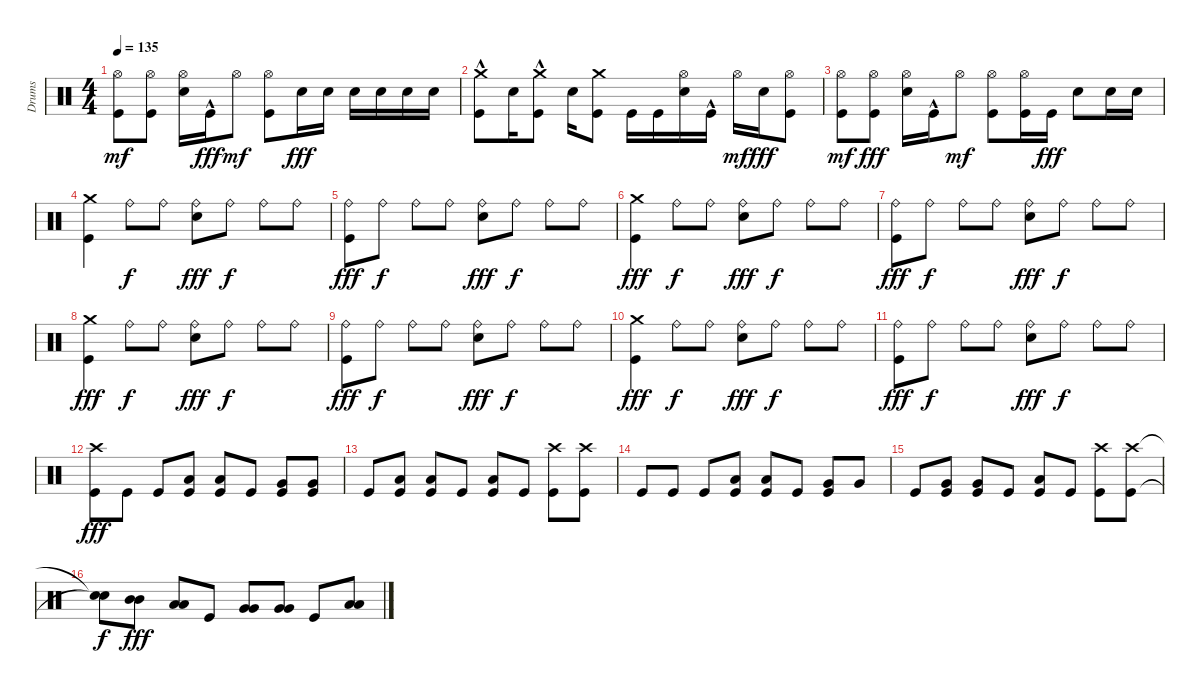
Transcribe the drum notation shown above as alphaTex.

\track ("Drums" "Drums") {instrument percussion}
\staff {score}
\articulation defaults
\ts (4 4)
\tempo 135
\clef neutral
\ks c
("Kick (hit)" "Hi-Hat (open)").8{dy mf} ("Kick (hit)" "Hi-Hat (open)").8 ("Electric Snare (hit)" "Hi-Hat (open)").16 "Kick (hit)"{hac}.16{dy fff} "Hi-Hat (open)".8{dy mf} ("Kick (hit)" "Hi-Hat (open)").8 "Electric Snare (hit)".16{dy fff} "Electric Snare (hit)".16 "Electric Snare (hit)".16 "Electric Snare (hit)".16 "Electric Snare (hit)".16 "Electric Snare (hit)".16 |
("Crash medium (hit)" "Kick (hit)"{hac}).8 "Electric Snare (hit)".16 ("Crash medium (hit)"{hac} "Kick (hit)"{hac}).8 "Electric Snare (hit)".16 ("Crash medium (hit)" "Kick (hit)").8 "Kick (hit)".16 "Kick (hit)".16 ("Hi-Hat (open)" "Electric Snare (hit)").16 "Kick (hit)"{hac}.16 "Hi-Hat (open)".16{dy mf} "Electric Snare (hit)".16{dy fff} ("Hi-Hat (open)" "Kick (hit)").8 |
("Kick (hit)" "Hi-Hat (open)").8{dy mf} ("Hi-Hat (open)" "Kick (hit)").8{dy fff} ("Hi-Hat (open)" "Electric Snare (hit)").16 "Kick (hit)"{hac}.16 "Hi-Hat (open)".8{dy mf} ("Kick (hit)" "Hi-Hat (open)").8 ("Kick (hit)" "Hi-Hat (open)").16 "Kick (hit)".16{dy fff} "Electric Snare (hit)".8 "Electric Snare (hit)".16 "Electric Snare (hit)".16 |
("Kick (hit)" "Crash medium (hit)").4 "Ride (bell)".8{dy f} "Ride (bell)".8 ("Electric Snare (hit)" "Ride (bell)").8{dy fff} "Ride (bell)".8{dy f} "Ride (bell)".8 "Ride (bell)".8 |
("Kick (hit)" "Ride (bell)").8{dy fff} "Ride (bell)".8{dy f} "Ride (bell)".8 "Ride (bell)".8 ("Electric Snare (hit)" "Ride (bell)").8{dy fff} "Ride (bell)".8{dy f} "Ride (bell)".8 "Ride (bell)".8 |
("Kick (hit)" "Crash medium (hit)").4{dy fff} "Ride (bell)".8{dy f} "Ride (bell)".8 ("Electric Snare (hit)" "Ride (bell)").8{dy fff} "Ride (bell)".8{dy f} "Ride (bell)".8 "Ride (bell)".8 |
("Kick (hit)" "Ride (bell)").8{dy fff} "Ride (bell)".8{dy f} "Ride (bell)".8 "Ride (bell)".8 ("Electric Snare (hit)" "Ride (bell)").8{dy fff} "Ride (bell)".8{dy f} "Ride (bell)".8 "Ride (bell)".8 |
("Kick (hit)" "Crash medium (hit)").4{dy fff} "Ride (bell)".8{dy f} "Ride (bell)".8 ("Electric Snare (hit)" "Ride (bell)").8{dy fff} "Ride (bell)".8{dy f} "Ride (bell)".8 "Ride (bell)".8 |
("Kick (hit)" "Ride (bell)").8{dy fff} "Ride (bell)".8{dy f} "Ride (bell)".8 "Ride (bell)".8 ("Electric Snare (hit)" "Ride (bell)").8{dy fff} "Ride (bell)".8{dy f} "Ride (bell)".8 "Ride (bell)".8 |
("Kick (hit)" "Crash medium (hit)").4{dy fff} "Ride (bell)".8{dy f} "Ride (bell)".8 ("Electric Snare (hit)" "Ride (bell)").8{dy fff} "Ride (bell)".8{dy f} "Ride (bell)".8 "Ride (bell)".8 |
("Kick (hit)" "Ride (bell)").8{dy fff} "Ride (bell)".8{dy f} "Ride (bell)".8 "Ride (bell)".8 ("Electric Snare (hit)" "Ride (bell)").8{dy fff} "Ride (bell)".8{dy f} "Ride (bell)".8 "Ride (bell)".8 |
("Kick (hit)" "Crash high (hit)").8{dy fff} "Kick (hit)".8 "Kick (hit)".8 ("Low Tom (hit)" "Kick (hit)").8 ("Low Tom (hit)" "Kick (hit)").8 "Kick (hit)".8 ("Very Low Tom (hit)" "Kick (hit)").8 ("Very Low Tom (hit)" "Kick (hit)").8 |
"Kick (hit)".8 ("Low Floor Tom (hit)" "Kick (hit)").8 ("Low Floor Tom (hit)" "Kick (hit)").8 "Kick (hit)".8 ("Low Floor Tom (hit)" "Kick (hit)").8 "Kick (hit)".8 ("Crash high (hit)" "Kick (hit)").8 ("Crash high (hit)" "Kick (hit)").8 |
"Kick (hit)".8 "Kick (hit)".8 "Kick (hit)".8 ("Low Tom (hit)" "Kick (hit)").8 ("Low Tom (hit)" "Kick (hit)").8 "Kick (hit)".8 ("Very Low Tom (hit)" "Kick (hit)").8 "Very Low Tom (hit)".8 |
"Kick (hit)".8 ("Very Low Tom (hit)" "Kick (hit)").8 ("Very Low Tom (hit)" "Kick (hit)").8 "Kick (hit)".8 ("Low Floor Tom (hit)" "Kick (hit)").8 "Kick (hit)".8 ("Crash high (hit)" "Kick (hit)").8 ("Crash high (hit)" "Kick (hit)").8 |
("Snare (hit)"{t} "Snare (hit)"{t}).8{dy f} ("Mid Tom (hit)" "Mid Tom (hit)").8{dy fff} ("Low Tom (hit)" "Low Tom (hit)").8 "Kick (hit)".8 ("Very Low Tom (hit)" "Very Low Tom (hit)").8 ("Very Low Tom (hit)" "Very Low Tom (hit)").8 "Kick (hit)".8 ("Low Floor Tom (hit)" "Low Floor Tom (hit)").8
